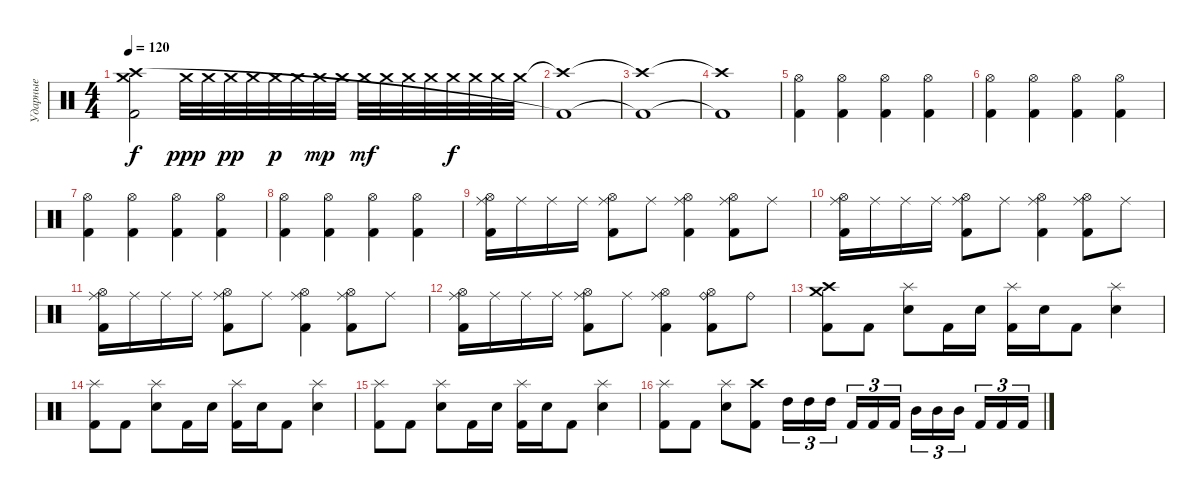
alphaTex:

\track ("Ударные" "Ударные") {instrument percussion}
\staff {score}
\articulation defaults
\ts (4 4)
\tempo 120
\clef neutral
\ks c
("Crash medium (hit)" "Crash high (hit)" "Kick (hit) 2").2{dy f} "Crash medium (hit)".32{dy ppp} "Crash medium (hit)".32 "Crash medium (hit)".32{dy pp} "Crash medium (hit)".32 "Crash medium (hit)".32{dy p} "Crash medium (hit)".32 "Crash medium (hit)".32{dy mp} "Crash medium (hit)".32 "Crash medium (hit)".32{dy mf} "Crash medium (hit)".32 "Crash medium (hit)".32 "Crash medium (hit)".32 "Crash medium (hit)".32{dy f} "Crash medium (hit)".32 "Crash medium (hit)".32 "Crash medium (hit)".32 |
("Crash high (hit)"{t} "Kick (hit) 2"{t}).1 |
("Crash high (hit)"{t} "Kick (hit) 2"{t}).1 |
("Crash high (hit)"{t} "Kick (hit) 2"{t}).1 |
("Hi-Hat (open)" "Kick (hit) 2").4 ("Hi-Hat (open)" "Kick (hit) 2").4 ("Hi-Hat (open)" "Kick (hit) 2").4 ("Hi-Hat (open)" "Kick (hit) 2").4 |
("Hi-Hat (open)" "Kick (hit) 2").4 ("Hi-Hat (open)" "Kick (hit) 2").4 ("Hi-Hat (open)" "Kick (hit) 2").4 ("Hi-Hat (open)" "Kick (hit) 2").4 |
("Hi-Hat (open)" "Kick (hit) 2").4 ("Hi-Hat (open)" "Kick (hit) 2").4 ("Hi-Hat (open)" "Kick (hit) 2").4 ("Hi-Hat (open)" "Kick (hit) 2").4 |
("Hi-Hat (open)" "Kick (hit) 2").4 ("Hi-Hat (open)" "Kick (hit) 2").4 ("Hi-Hat (open)" "Kick (hit) 2").4 ("Hi-Hat (open)" "Kick (hit) 2").4 |
("Ride (middle)" "Hi-Hat (open)" "Kick (hit) 2").16 "Ride (middle)".16 "Ride (middle)".16 "Ride (middle)".16 ("Ride (middle)" "Hi-Hat (open)" "Kick (hit) 2").8 "Ride (middle)".8 ("Ride (middle)" "Hi-Hat (open)" "Kick (hit) 2").4 ("Ride (middle)" "Hi-Hat (open)" "Kick (hit) 2").8 "Ride (middle)".8 |
("Ride (middle)" "Hi-Hat (open)" "Kick (hit) 2").16 "Ride (middle)".16 "Ride (middle)".16 "Ride (middle)".16 ("Ride (middle)" "Hi-Hat (open)" "Kick (hit) 2").8 "Ride (middle)".8 ("Ride (middle)" "Hi-Hat (open)" "Kick (hit) 2").4 ("Ride (middle)" "Hi-Hat (open)" "Kick (hit) 2").8 "Ride (middle)".8 |
("Ride (middle)" "Hi-Hat (open)" "Kick (hit) 2").16 "Ride (middle)".16 "Ride (middle)".16 "Ride (middle)".16 ("Ride (middle)" "Hi-Hat (open)" "Kick (hit) 2").8 "Ride (middle)".8 ("Ride (middle)" "Hi-Hat (open)" "Kick (hit) 2").4 ("Ride (middle)" "Hi-Hat (open)" "Kick (hit) 2").8 "Ride (middle)".8 |
("Ride (middle)" "Hi-Hat (open)" "Kick (hit) 2").16 "Ride (middle)".16 "Ride (middle)".16 "Ride (middle)".16 ("Ride (middle)" "Hi-Hat (open)" "Kick (hit) 2").8 "Ride (middle)".8 ("Ride (middle)" "Hi-Hat (open)" "Kick (hit) 2").4 ("Ride (bell)" "Hi-Hat (open)" "Kick (hit) 2").8 "Ride (bell)".8 |
("Crash medium (hit)" "Crash high (hit)" "Kick (hit) 2").8 "Kick (hit) 2".8 ("Splash (hit)" "Electric Snare (hit)").8 "Kick (hit) 2".16 "Electric Snare (hit)".16 ("Splash (hit)" "Kick (hit) 2").16 "Electric Snare (hit)".16 "Kick (hit) 2".8 ("Splash (hit)" "Electric Snare (hit)").4 |
("Splash (hit)" "Kick (hit) 2").8 "Kick (hit) 2".8 ("Splash (hit)" "Electric Snare (hit)").8 "Kick (hit) 2".16 "Electric Snare (hit)".16 ("Splash (hit)" "Kick (hit) 2").16 "Electric Snare (hit)".16 "Kick (hit) 2".8 ("Splash (hit)" "Electric Snare (hit)").4 |
("Splash (hit)" "Kick (hit) 2").8 "Kick (hit) 2".8 ("Splash (hit)" "Electric Snare (hit)").8 "Kick (hit) 2".16 "Electric Snare (hit)".16 ("Splash (hit)" "Kick (hit) 2").16 "Electric Snare (hit)".16 "Kick (hit) 2".8 ("Splash (hit)" "Electric Snare (hit)").4 |
("Splash (hit)" "Kick (hit) 2").8 "Kick (hit) 2".8 ("Splash (hit)" "Electric Snare (hit)").8 ("Crash high (hit)" "Kick (hit) 2").8 "High Tom (hit)".16{tu (3 2)} "High Tom (hit)".16{tu (3 2)} "High Tom (hit)".16{tu (3 2) beam splitsecondary} "Kick (hit) 2".16{tu (3 2)} "Kick (hit) 2".16{tu (3 2)} "Kick (hit) 2".16{tu (3 2)} "Mid Tom (hit)".16{tu (3 2)} "Mid Tom (hit)".16{tu (3 2)} "Mid Tom (hit)".16{tu (3 2) beam splitsecondary} "Kick (hit) 2".16{tu (3 2)} "Kick (hit) 2".16{tu (3 2)} "Kick (hit) 2".16{tu (3 2)}
